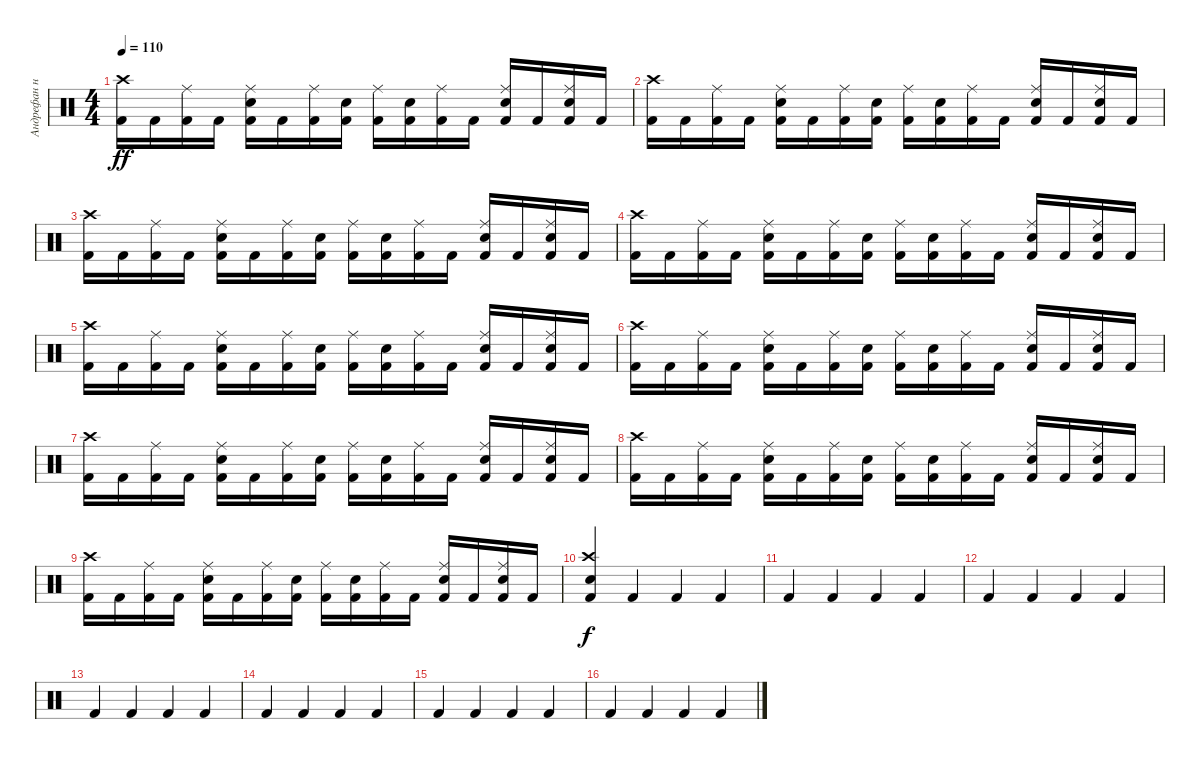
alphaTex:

\track ("Андрефан на драмах" "Андрефан н") {instrument percussion}
\staff {score}
\articulation defaults
\ts (4 4)
\tempo 110
\clef neutral
\ks c
("Kick (hit) 2" "Crash high (hit)").16{dy ff} "Kick (hit) 2".16 ("Kick (hit) 2" "Ride (middle)").16 "Kick (hit) 2".16 ("Kick (hit) 2" "Ride (middle)" "Electric Snare (hit)").16 "Kick (hit) 2".16 ("Kick (hit) 2" "Ride (middle)").16 ("Kick (hit) 2" "Electric Snare (hit)").16 ("Kick (hit) 2" "Ride (middle)").16 ("Kick (hit) 2" "Electric Snare (hit)").16 ("Kick (hit) 2" "Ride (middle)").16 "Kick (hit) 2".16 ("Kick (hit) 2" "Ride (middle)" "Electric Snare (hit)").16 "Kick (hit) 2".16 ("Kick (hit) 2" "Ride (middle)" "Electric Snare (hit)").16 "Kick (hit) 2".16 |
("Kick (hit) 2" "Crash high (hit)").16 "Kick (hit) 2".16 ("Kick (hit) 2" "Ride (middle)").16 "Kick (hit) 2".16 ("Kick (hit) 2" "Ride (middle)" "Electric Snare (hit)").16 "Kick (hit) 2".16 ("Kick (hit) 2" "Ride (middle)").16 ("Kick (hit) 2" "Electric Snare (hit)").16 ("Kick (hit) 2" "Ride (middle)").16 ("Kick (hit) 2" "Electric Snare (hit)").16 ("Kick (hit) 2" "Ride (middle)").16 "Kick (hit) 2".16 ("Kick (hit) 2" "Ride (middle)" "Electric Snare (hit)").16 "Kick (hit) 2".16 ("Kick (hit) 2" "Ride (middle)" "Electric Snare (hit)").16 "Kick (hit) 2".16 |
("Kick (hit) 2" "Crash high (hit)").16 "Kick (hit) 2".16 ("Kick (hit) 2" "Ride (middle)").16 "Kick (hit) 2".16 ("Kick (hit) 2" "Ride (middle)" "Electric Snare (hit)").16 "Kick (hit) 2".16 ("Kick (hit) 2" "Ride (middle)").16 ("Kick (hit) 2" "Electric Snare (hit)").16 ("Kick (hit) 2" "Ride (middle)").16 ("Kick (hit) 2" "Electric Snare (hit)").16 ("Kick (hit) 2" "Ride (middle)").16 "Kick (hit) 2".16 ("Kick (hit) 2" "Ride (middle)" "Electric Snare (hit)").16 "Kick (hit) 2".16 ("Kick (hit) 2" "Ride (middle)" "Electric Snare (hit)").16 "Kick (hit) 2".16 |
("Kick (hit) 2" "Crash high (hit)").16 "Kick (hit) 2".16 ("Kick (hit) 2" "Ride (middle)").16 "Kick (hit) 2".16 ("Kick (hit) 2" "Ride (middle)" "Electric Snare (hit)").16 "Kick (hit) 2".16 ("Kick (hit) 2" "Ride (middle)").16 ("Kick (hit) 2" "Electric Snare (hit)").16 ("Kick (hit) 2" "Ride (middle)").16 ("Kick (hit) 2" "Electric Snare (hit)").16 ("Kick (hit) 2" "Ride (middle)").16 "Kick (hit) 2".16 ("Kick (hit) 2" "Ride (middle)" "Electric Snare (hit)").16 "Kick (hit) 2".16 ("Kick (hit) 2" "Ride (middle)" "Electric Snare (hit)").16 "Kick (hit) 2".16 |
("Kick (hit) 2" "Crash high (hit)").16 "Kick (hit) 2".16 ("Kick (hit) 2" "Ride (middle)").16 "Kick (hit) 2".16 ("Kick (hit) 2" "Ride (middle)" "Electric Snare (hit)").16 "Kick (hit) 2".16 ("Kick (hit) 2" "Ride (middle)").16 ("Kick (hit) 2" "Electric Snare (hit)").16 ("Kick (hit) 2" "Ride (middle)").16 ("Kick (hit) 2" "Electric Snare (hit)").16 ("Kick (hit) 2" "Ride (middle)").16 "Kick (hit) 2".16 ("Kick (hit) 2" "Ride (middle)" "Electric Snare (hit)").16 "Kick (hit) 2".16 ("Kick (hit) 2" "Ride (middle)" "Electric Snare (hit)").16 "Kick (hit) 2".16 |
("Kick (hit) 2" "Crash high (hit)").16 "Kick (hit) 2".16 ("Kick (hit) 2" "Ride (middle)").16 "Kick (hit) 2".16 ("Kick (hit) 2" "Ride (middle)" "Electric Snare (hit)").16 "Kick (hit) 2".16 ("Kick (hit) 2" "Ride (middle)").16 ("Kick (hit) 2" "Electric Snare (hit)").16 ("Kick (hit) 2" "Ride (middle)").16 ("Kick (hit) 2" "Electric Snare (hit)").16 ("Kick (hit) 2" "Ride (middle)").16 "Kick (hit) 2".16 ("Kick (hit) 2" "Ride (middle)" "Electric Snare (hit)").16 "Kick (hit) 2".16 ("Kick (hit) 2" "Ride (middle)" "Electric Snare (hit)").16 "Kick (hit) 2".16 |
("Kick (hit) 2" "Crash high (hit)").16 "Kick (hit) 2".16 ("Kick (hit) 2" "Ride (middle)").16 "Kick (hit) 2".16 ("Kick (hit) 2" "Ride (middle)" "Electric Snare (hit)").16 "Kick (hit) 2".16 ("Kick (hit) 2" "Ride (middle)").16 ("Kick (hit) 2" "Electric Snare (hit)").16 ("Kick (hit) 2" "Ride (middle)").16 ("Kick (hit) 2" "Electric Snare (hit)").16 ("Kick (hit) 2" "Ride (middle)").16 "Kick (hit) 2".16 ("Kick (hit) 2" "Ride (middle)" "Electric Snare (hit)").16 "Kick (hit) 2".16 ("Kick (hit) 2" "Ride (middle)" "Electric Snare (hit)").16 "Kick (hit) 2".16 |
("Kick (hit) 2" "Crash high (hit)").16 "Kick (hit) 2".16 ("Kick (hit) 2" "Ride (middle)").16 "Kick (hit) 2".16 ("Kick (hit) 2" "Ride (middle)" "Electric Snare (hit)").16 "Kick (hit) 2".16 ("Kick (hit) 2" "Ride (middle)").16 ("Kick (hit) 2" "Electric Snare (hit)").16 ("Kick (hit) 2" "Ride (middle)").16 ("Kick (hit) 2" "Electric Snare (hit)").16 ("Kick (hit) 2" "Ride (middle)").16 "Kick (hit) 2".16 ("Kick (hit) 2" "Ride (middle)" "Electric Snare (hit)").16 "Kick (hit) 2".16 ("Kick (hit) 2" "Ride (middle)" "Electric Snare (hit)").16 "Kick (hit) 2".16 |
("Kick (hit) 2" "Crash high (hit)").16 "Kick (hit) 2".16 ("Kick (hit) 2" "Ride (middle)").16 "Kick (hit) 2".16 ("Kick (hit) 2" "Ride (middle)" "Electric Snare (hit)").16 "Kick (hit) 2".16 ("Kick (hit) 2" "Ride (middle)").16 ("Kick (hit) 2" "Electric Snare (hit)").16 ("Kick (hit) 2" "Ride (middle)").16 ("Kick (hit) 2" "Electric Snare (hit)").16 ("Kick (hit) 2" "Ride (middle)").16 "Kick (hit) 2".16 ("Kick (hit) 2" "Ride (middle)" "Electric Snare (hit)").16 "Kick (hit) 2".16 ("Kick (hit) 2" "Ride (middle)" "Electric Snare (hit)").16 "Kick (hit) 2".16 |
("Kick (hit) 2" "Crash high (hit)" "Electric Snare (hit)").4{dy f} "Kick (hit) 2".4 "Kick (hit) 2".4 "Kick (hit) 2".4 |
"Kick (hit) 2".4 "Kick (hit) 2".4 "Kick (hit) 2".4 "Kick (hit) 2".4 |
"Kick (hit) 2".4 "Kick (hit) 2".4 "Kick (hit) 2".4 "Kick (hit) 2".4 |
"Kick (hit) 2".4 "Kick (hit) 2".4 "Kick (hit) 2".4 "Kick (hit) 2".4 |
"Kick (hit) 2".4 "Kick (hit) 2".4 "Kick (hit) 2".4 "Kick (hit) 2".4 |
"Kick (hit) 2".4 "Kick (hit) 2".4 "Kick (hit) 2".4 "Kick (hit) 2".4 |
"Kick (hit) 2".4 "Kick (hit) 2".4 "Kick (hit) 2".4 "Kick (hit) 2".4
